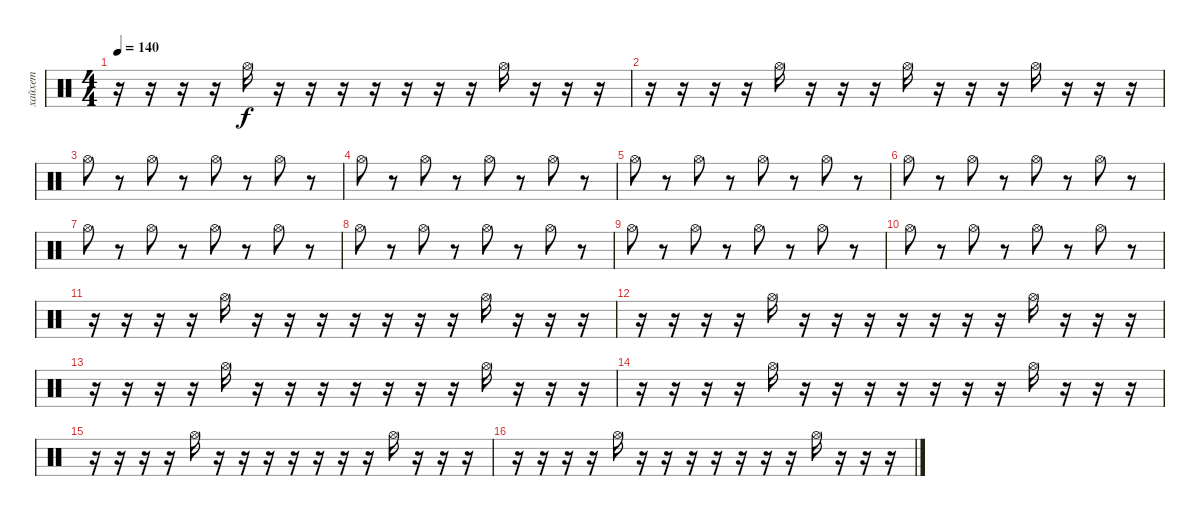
\track ("хайхет" "хайхет") {mute instrument percussion}
\staff {score}
\articulation defaults
\ts (4 4)
\tempo 140
\clef neutral
\ks c
r.16{dy f} r.16 r.16 r.16 "Hi-Hat (open)".16 r.16 r.16 r.16 r.16 r.16 r.16 r.16 "Hi-Hat (open)".16 r.16 r.16 r.16 |
r.16 r.16 r.16 r.16 "Hi-Hat (open)".16 r.16 r.16 r.16 "Hi-Hat (open)".16 r.16 r.16 r.16 "Hi-Hat (open)".16 r.16 r.16 r.16 |
"Hi-Hat (open)".8 r.8 "Hi-Hat (open)".8 r.8 "Hi-Hat (open)".8 r.8 "Hi-Hat (open)".8 r.8 |
"Hi-Hat (open)".8 r.8 "Hi-Hat (open)".8 r.8 "Hi-Hat (open)".8 r.8 "Hi-Hat (open)".8 r.8 |
"Hi-Hat (open)".8 r.8 "Hi-Hat (open)".8 r.8 "Hi-Hat (open)".8 r.8 "Hi-Hat (open)".8 r.8 |
"Hi-Hat (open)".8 r.8 "Hi-Hat (open)".8 r.8 "Hi-Hat (open)".8 r.8 "Hi-Hat (open)".8 r.8 |
"Hi-Hat (open)".8 r.8 "Hi-Hat (open)".8 r.8 "Hi-Hat (open)".8 r.8 "Hi-Hat (open)".8 r.8 |
"Hi-Hat (open)".8 r.8 "Hi-Hat (open)".8 r.8 "Hi-Hat (open)".8 r.8 "Hi-Hat (open)".8 r.8 |
"Hi-Hat (open)".8 r.8 "Hi-Hat (open)".8 r.8 "Hi-Hat (open)".8 r.8 "Hi-Hat (open)".8 r.8 |
"Hi-Hat (open)".8 r.8 "Hi-Hat (open)".8 r.8 "Hi-Hat (open)".8 r.8 "Hi-Hat (open)".8 r.8 |
r.16 r.16 r.16 r.16 "Hi-Hat (open)".16 r.16 r.16 r.16 r.16 r.16 r.16 r.16 "Hi-Hat (open)".16 r.16 r.16 r.16 |
r.16 r.16 r.16 r.16 "Hi-Hat (open)".16 r.16 r.16 r.16 r.16 r.16 r.16 r.16 "Hi-Hat (open)".16 r.16 r.16 r.16 |
r.16 r.16 r.16 r.16 "Hi-Hat (open)".16 r.16 r.16 r.16 r.16 r.16 r.16 r.16 "Hi-Hat (open)".16 r.16 r.16 r.16 |
r.16 r.16 r.16 r.16 "Hi-Hat (open)".16 r.16 r.16 r.16 r.16 r.16 r.16 r.16 "Hi-Hat (open)".16 r.16 r.16 r.16 |
r.16 r.16 r.16 r.16 "Hi-Hat (open)".16 r.16 r.16 r.16 r.16 r.16 r.16 r.16 "Hi-Hat (open)".16 r.16 r.16 r.16 |
r.16 r.16 r.16 r.16 "Hi-Hat (open)".16 r.16 r.16 r.16 r.16 r.16 r.16 r.16 "Hi-Hat (open)".16 r.16 r.16 r.16
